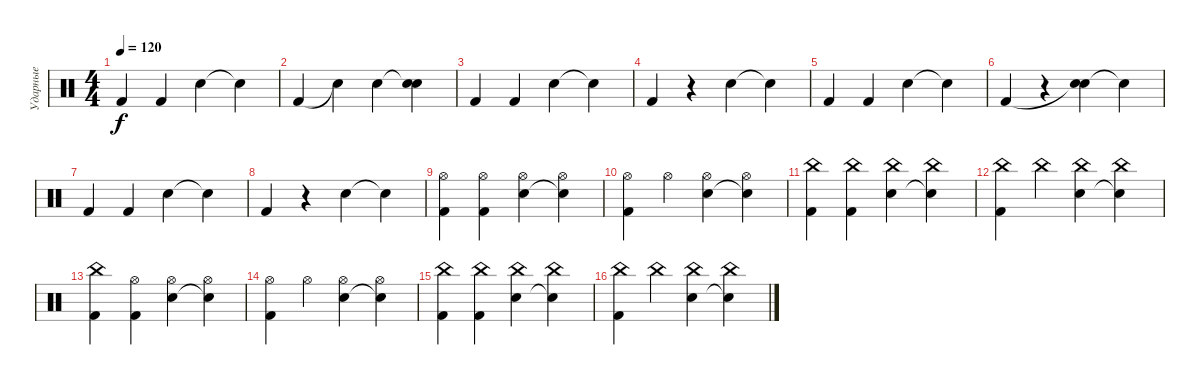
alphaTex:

\track ("Ударные" "Ударные") {instrument percussion}
\staff {score}
\articulation defaults
\ts (4 4)
\tempo 120
\clef neutral
\ks c "Kick (hit) 2".4{dy f volume 13} "Kick (hit) 2".4 "Electric Snare (hit)".4 "Snare (hit)"{t}.4
|
"Kick (hit) 2".4 "Snare (hit)"{t}.4 "Electric Snare (hit)".4 ("Snare (hit)"{t} "Snare (hit)").4 |
"Kick (hit) 2".4 "Kick (hit) 2".4 "Electric Snare (hit)".4 "Snare (hit)"{t}.4 |
"Kick (hit) 2".4 r.4 "Electric Snare (hit)".4 "Snare (hit)"{t}.4 |
"Kick (hit) 2".4{volume 13} "Kick (hit) 2".4 "Electric Snare (hit)".4 "Snare (hit)"{t}.4 |
"Kick (hit) 2".4 r.4 ("Snare (hit)"{t} "Electric Snare (hit)").4 "Snare (hit)"{t}.4 |
"Kick (hit) 2".4 "Kick (hit) 2".4 "Electric Snare (hit)".4 "Snare (hit)"{t}.4 |
"Kick (hit) 2".4 r.4 "Electric Snare (hit)".4 "Snare (hit)"{t}.4 |
("Hi-Hat (open)" "Kick (hit) 2").4 ("Hi-Hat (open)" "Kick (hit) 2").4 ("Hi-Hat (open)" "Electric Snare (hit)").4 ("Hi-Hat (open)" "Snare (hit)"{t}).4 |
("Hi-Hat (open)" "Kick (hit) 2").4 "Hi-Hat (open)".4 ("Hi-Hat (open)" "Electric Snare (hit)").4 ("Hi-Hat (open)" "Snare (hit)"{t}).4 |
("China (hit)" "Kick (hit) 2").4 ("China (hit)" "Kick (hit) 2").4 ("China (hit)" "Electric Snare (hit)").4 ("China (hit)" "Snare (hit)"{t}).4 |
("China (hit)" "Kick (hit) 2").4 "China (hit)".4 ("China (hit)" "Electric Snare (hit)").4 ("China (hit)" "Snare (hit)"{t}).4 |
("China (hit)" "Kick (hit) 2").4 ("Hi-Hat (open)" "Kick (hit) 2").4 ("Hi-Hat (open)" "Electric Snare (hit)").4 ("Hi-Hat (open)" "Snare (hit)"{t}).4 |
("Hi-Hat (open)" "Kick (hit) 2").4 "Hi-Hat (open)".4 ("Hi-Hat (open)" "Electric Snare (hit)").4 ("Hi-Hat (open)" "Snare (hit)"{t}).4 |
("China (hit)" "Kick (hit) 2").4 ("China (hit)" "Kick (hit) 2").4 ("China (hit)" "Electric Snare (hit)").4 ("China (hit)" "Snare (hit)"{t}).4 |
("China (hit)" "Kick (hit) 2").4 "China (hit)".4 ("China (hit)" "Electric Snare (hit)").4 ("China (hit)" "Snare (hit)"{t}).4
